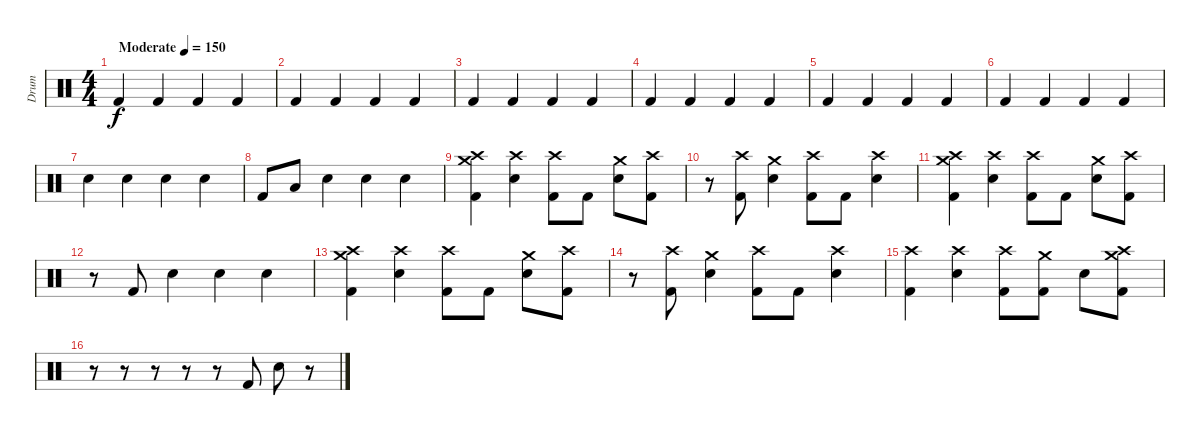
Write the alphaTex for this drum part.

\track ("Drum" "Drum") {instrument percussion}
\staff {score}
\articulation defaults
\ts (4 4)
\tempo (150 "Moderate")
\clef neutral
\ks c "Kick (hit) 2".4{dy f} "Kick (hit) 2".4 "Kick (hit) 2".4 "Kick (hit) 2".4
|
"Kick (hit) 2".4 "Kick (hit) 2".4 "Kick (hit) 2".4 "Kick (hit) 2".4 |
"Kick (hit) 2".4 "Kick (hit) 2".4 "Kick (hit) 2".4 "Kick (hit) 2".4 |
"Kick (hit) 2".4 "Kick (hit) 2".4 "Kick (hit) 2".4 "Kick (hit) 2".4 |
"Kick (hit) 2".4 "Kick (hit) 2".4 "Kick (hit) 2".4 "Kick (hit) 2".4 |
"Kick (hit) 2".4 "Kick (hit) 2".4 "Kick (hit) 2".4 "Kick (hit) 2".4 |
"Electric Snare (hit)".4 "Electric Snare (hit)".4 "Electric Snare (hit)".4 "Electric Snare (hit)".4 |
"Kick (hit) 2".8 "Low Tom (hit)".8 "Electric Snare (hit)".4 "Electric Snare (hit)".4 "Electric Snare (hit)".4 |
("Crash high (hit)" "Crash medium (hit)" "Kick (hit) 2").4 ("Crash high (hit)" "Electric Snare (hit)").4 ("Crash high (hit)" "Kick (hit) 2").8 "Kick (hit) 2".8 ("Crash medium (hit)" "Electric Snare (hit)").8 ("Crash high (hit)" "Kick (hit) 2").8 |
r.8 ("Crash high (hit)" "Kick (hit) 2").8 ("Crash medium (hit)" "Electric Snare (hit)").4 ("Crash high (hit)" "Kick (hit) 2").8 "Kick (hit) 2".8 ("Crash high (hit)" "Electric Snare (hit)").4 |
("Crash high (hit)" "Crash medium (hit)" "Kick (hit) 2").4 ("Crash high (hit)" "Electric Snare (hit)").4 ("Crash high (hit)" "Kick (hit) 2").8 "Kick (hit) 2".8 ("Crash medium (hit)" "Electric Snare (hit)").8 ("Crash high (hit)" "Kick (hit) 2").8 |
r.8 "Kick (hit) 2".8 "Electric Snare (hit)".4 "Electric Snare (hit)".4 "Electric Snare (hit)".4 |
("Crash high (hit)" "Crash medium (hit)" "Kick (hit) 2").4 ("Crash high (hit)" "Electric Snare (hit)").4 ("Crash high (hit)" "Kick (hit) 2").8 "Kick (hit) 2".8 ("Crash medium (hit)" "Electric Snare (hit)").8 ("Crash high (hit)" "Kick (hit) 2").8 |
r.8 ("Crash high (hit)" "Kick (hit) 2").8 ("Crash medium (hit)" "Electric Snare (hit)").4 ("Crash high (hit)" "Kick (hit) 2").8 "Kick (hit) 2".8 ("Crash high (hit)" "Electric Snare (hit)").4 |
("Crash high (hit)" "Kick (hit) 2").4 ("Crash high (hit)" "Electric Snare (hit)").4 ("Crash high (hit)" "Kick (hit) 2").8 ("Crash medium (hit)" "Kick (hit) 2").8 "Electric Snare (hit)".8 ("Crash high (hit)" "Crash medium (hit)" "Kick (hit) 2").8 |
r.8 r.8 r.8 r.8 r.8 "Kick (hit) 2".8 "Electric Snare (hit)".8 r.8
